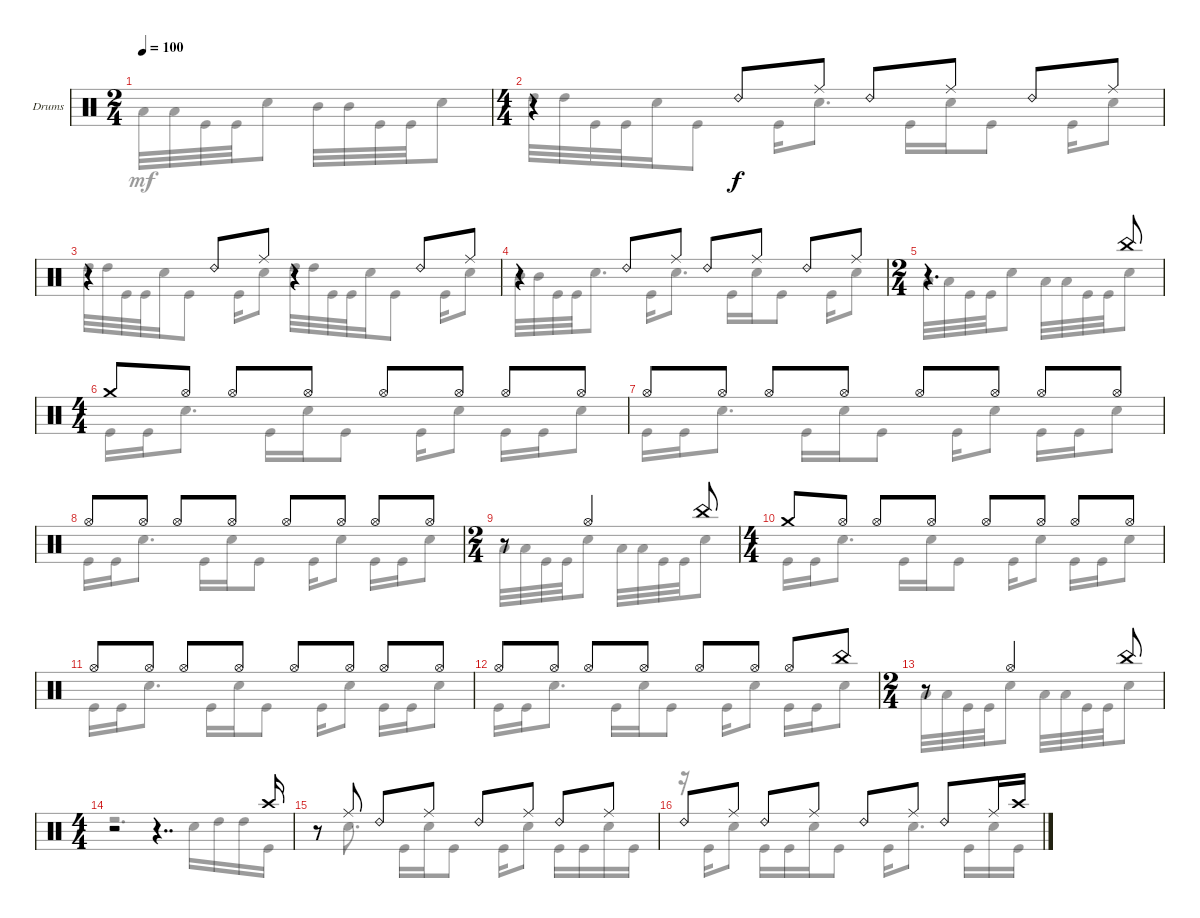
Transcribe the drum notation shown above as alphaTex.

\defaultSystemsLayout 4
\bracketExtendMode groupsimilarinstruments
\firstSystemTrackNameOrientation horizontal
\otherSystemsTrackNameOrientation horizontal
\track ("Drumkit" "Drums") {instrument percussion}
\staff {score}
\articulation defaults
\voice
\ts (2 4)
\tempo 100
\clef neutral
\ks c
|
\ts (4 4)
r.4 "Ride (bell) 2".8 "Ride (middle)".8 "Ride (bell) 2".8 "Ride (middle)".8 "Ride (bell) 2".8 "Ride (middle)".8 |
r.4 "Ride (bell) 2".8 "Ride (middle)".8 r.4 "Ride (bell) 2".8 "Ride (middle)".8 |
r.4 "Ride (bell) 2".8 "Ride (middle)".8 "Ride (bell) 2".8 "Ride (middle)".8 "Ride (bell) 2".8 "Ride (middle)".8 |
\ts (2 4)
r.4{d} "China (hit)".8 |
\ts (4 4)
"Crash medium (hit)".8 "Hi-Hat (open)".8 "Hi-Hat (open)".8 "Hi-Hat (open)".8 "Hi-Hat (open)".8 "Hi-Hat (open)".8 "Hi-Hat (open)".8 "Hi-Hat (open)".8 |
"Hi-Hat (open)".8 "Hi-Hat (open)".8 "Hi-Hat (open)".8 "Hi-Hat (open)".8 "Hi-Hat (open)".8 "Hi-Hat (open)".8 "Hi-Hat (open)".8 "Hi-Hat (open)".8 |
"Hi-Hat (open)".8 "Hi-Hat (open)".8 "Hi-Hat (open)".8 "Hi-Hat (open)".8 "Hi-Hat (open)".8 "Hi-Hat (open)".8 "Hi-Hat (open)".8 "Hi-Hat (open)".8 |
\ts (2 4)
r.8 "Hi-Hat (open)".4 "China (hit)".8 |
\ts (4 4)
"Crash medium (hit)".8 "Hi-Hat (open)".8 "Hi-Hat (open)".8 "Hi-Hat (open)".8 "Hi-Hat (open)".8 "Hi-Hat (open)".8 "Hi-Hat (open)".8 "Hi-Hat (open)".8 |
"Hi-Hat (open)".8 "Hi-Hat (open)".8 "Hi-Hat (open)".8 "Hi-Hat (open)".8 "Hi-Hat (open)".8 "Hi-Hat (open)".8 "Hi-Hat (open)".8 "Hi-Hat (open)".8 |
"Hi-Hat (open)".8 "Hi-Hat (open)".8 "Hi-Hat (open)".8 "Hi-Hat (open)".8 "Hi-Hat (open)".8 "Hi-Hat (open)".8 "Hi-Hat (open)".8 "China (hit)".8 |
\ts (2 4)
r.8 "Hi-Hat (open)".4 "China (hit)".8 |
\ts (4 4)
r.2 r.4{dd} "Crash high (hit)".16 |
r.8 "Ride (middle)".8 "Ride (bell) 2".8 "Ride (middle)".8 "Ride (bell) 2".8 "Ride (middle)".8 "Ride (bell) 2".8 "Ride (middle)".8 |
"Ride (bell) 2".8 "Ride (middle)".8 "Ride (bell) 2".8 "Ride (middle)".8 "Ride (bell) 2".8 "Ride (middle)".8 "Ride (bell) 2".8 "Ride (middle)".16 "Crash high (hit)".16
\voice
\clef neutral
\ottava regular
\simile none
\ks c "Low Tom (hit)".32{dy mf} "Low Tom (hit)".32 "Kick (hit)".32 "Kick (hit)".32 "Snare (hit) 2".8 "Mid Tom (hit)".32 "Mid Tom (hit)".32 "Kick (hit)".32 "Kick (hit)".32 "Snare (hit) 2".8
|
"High Tom (hit)".32 "High Tom (hit)".32 "Kick (hit)".32 "Kick (hit)".32 "Snare (hit) 2".16 "Kick (hit)".8 "Kick (hit)".16 "Snare (hit) 2".8{d} "Kick (hit)".16 "Snare (hit) 2".16 "Kick (hit)".8 "Kick (hit)".16 "Snare (hit) 2".8 |
"High Tom (hit)".32 "High Tom (hit)".32 "Kick (hit)".32 "Kick (hit)".32 "Snare (hit) 2".16 "Kick (hit)".8 "Kick (hit)".16 "Snare (hit) 2".8 "High Tom (hit)".32 "High Tom (hit)".32 "Kick (hit)".32 "Kick (hit)".32 "Snare (hit) 2".16 "Kick (hit)".8 "Kick (hit)".16 "Snare (hit) 2".8 |
"Mid Tom (hit)".32 "Mid Tom (hit)".32 "Kick (hit)".32 "Kick (hit)".32 "Snare (hit) 2".8{d} "Kick (hit)".16 "Snare (hit) 2".8{d} "Kick (hit)".16 "Snare (hit) 2".16 "Kick (hit)".8 "Kick (hit)".16 "Snare (hit) 2".8 |
"Low Tom (hit)".32 "Low Tom (hit)".32 "Kick (hit)".32 "Kick (hit)".32 "Snare (hit) 2".8 "Low Tom (hit)".32 "Low Tom (hit)".32 "Kick (hit)".32 "Kick (hit)".32 "Snare (hit) 2".8 |
"Kick (hit)".16 "Kick (hit)".16 "Snare (hit) 2".8{d} "Kick (hit)".16 "Snare (hit) 2".16 "Kick (hit)".8 "Kick (hit)".16 "Snare (hit) 2".8 "Kick (hit)".16 "Kick (hit)".16 "Snare (hit) 2".8 |
"Kick (hit)".16 "Kick (hit)".16 "Snare (hit) 2".8{d} "Kick (hit)".16 "Snare (hit) 2".16 "Kick (hit)".8 "Kick (hit)".16 "Snare (hit) 2".8 "Kick (hit)".16 "Kick (hit)".16 "Snare (hit) 2".8 |
"Kick (hit)".16 "Kick (hit)".16 "Snare (hit) 2".8{d} "Kick (hit)".16 "Snare (hit) 2".16 "Kick (hit)".8 "Kick (hit)".16 "Snare (hit) 2".8 "Kick (hit)".16 "Kick (hit)".16 "Snare (hit) 2".8 |
"Low Tom (hit)".32 "Low Tom (hit)".32 "Kick (hit)".32 "Kick (hit)".32 "Snare (hit) 2".8 "Low Tom (hit)".32 "Low Tom (hit)".32 "Kick (hit)".32 "Kick (hit)".32 "Snare (hit) 2".8 |
"Kick (hit)".16 "Kick (hit)".16 "Snare (hit) 2".8{d} "Kick (hit)".16 "Snare (hit) 2".16 "Kick (hit)".8 "Kick (hit)".16 "Snare (hit) 2".8 "Kick (hit)".16 "Kick (hit)".16 "Snare (hit) 2".8 |
"Kick (hit)".16 "Kick (hit)".16 "Snare (hit) 2".8{d} "Kick (hit)".16 "Snare (hit) 2".16 "Kick (hit)".8 "Kick (hit)".16 "Snare (hit) 2".8 "Kick (hit)".16 "Kick (hit)".16 "Snare (hit) 2".8 |
"Kick (hit)".16 "Kick (hit)".16 "Snare (hit) 2".8{d} "Kick (hit)".16 "Snare (hit) 2".16 "Kick (hit)".8 "Kick (hit)".16 "Snare (hit) 2".8 "Kick (hit)".16 "Kick (hit)".16 "Snare (hit) 2".8 |
"Low Tom (hit)".32 "Low Tom (hit)".32 "Kick (hit)".32 "Kick (hit)".32 "Snare (hit) 2".8 "Low Tom (hit)".32 "Low Tom (hit)".32 "Kick (hit)".32 "Kick (hit)".32 "Snare (hit) 2".8 |
r.2{d} "Snare (hit) 2".16 "High Tom (hit)".16 "High Tom (hit)".16 "Kick (hit)".16 |
r.8 "Snare (hit) 2".8{d} "Kick (hit)".16 "Snare (hit) 2".16 "Kick (hit)".8 "Kick (hit)".16 "Snare (hit) 2".8 "Kick (hit)".16 "Kick (hit)".16 "Snare (hit) 2".16 "Kick (hit)".16 |
r.16 "Kick (hit)".16 "Snare (hit) 2".8 "Kick (hit)".16 "Kick (hit)".16 "Snare (hit) 2".16 "Kick (hit)".8 "Kick (hit)".16 "Snare (hit) 2".8{d} "Kick (hit)".16 "Snare (hit) 2".16 "Kick (hit)".16
